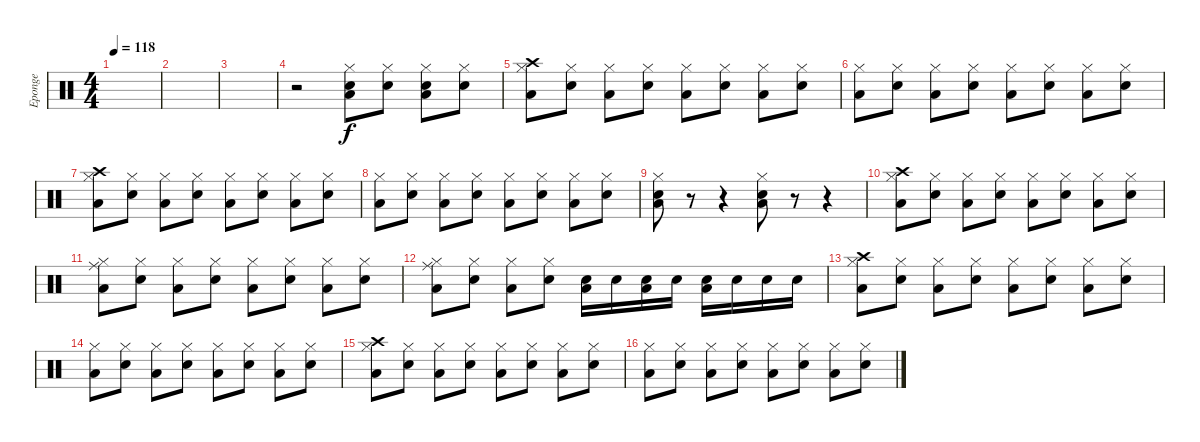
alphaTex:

\track ("Eponge" "Eponge") {instrument percussion}
\staff {score}
\articulation defaults
\ts (4 4)
\tempo 118
\clef neutral
\ks c
|
|
|
r.2 ("Low Floor Tom (hit)" "Snare (hit) 2" "Hi-Hat (closed)").8 ("Snare (hit) 2" "Hi-Hat (closed)").8 ("Low Floor Tom (hit)" "Snare (hit) 2" "Hi-Hat (closed)").8 ("Snare (hit) 2" "Hi-Hat (closed)").8 |
("Low Floor Tom (hit)" "Hi-Hat (closed)" "Crash high (hit)").8 ("Snare (hit) 2" "Hi-Hat (closed)").8 ("Low Floor Tom (hit)" "Hi-Hat (closed)").8 ("Snare (hit) 2" "Hi-Hat (closed)").8 ("Low Floor Tom (hit)" "Hi-Hat (closed)").8 ("Snare (hit) 2" "Hi-Hat (closed)").8 ("Low Floor Tom (hit)" "Hi-Hat (closed)").8 ("Snare (hit) 2" "Hi-Hat (closed)").8 |
("Low Floor Tom (hit)" "Hi-Hat (closed)").8 ("Snare (hit) 2" "Hi-Hat (closed)").8 ("Low Floor Tom (hit)" "Hi-Hat (closed)").8 ("Snare (hit) 2" "Hi-Hat (closed)").8 ("Low Floor Tom (hit)" "Hi-Hat (closed)").8 ("Snare (hit) 2" "Hi-Hat (closed)").8 ("Low Floor Tom (hit)" "Hi-Hat (closed)").8 ("Snare (hit) 2" "Hi-Hat (closed)").8 |
("Low Floor Tom (hit)" "Hi-Hat (closed)" "Crash high (hit)").8 ("Snare (hit) 2" "Hi-Hat (closed)").8 ("Low Floor Tom (hit)" "Hi-Hat (closed)").8 ("Snare (hit) 2" "Hi-Hat (closed)").8 ("Low Floor Tom (hit)" "Hi-Hat (closed)").8 ("Snare (hit) 2" "Hi-Hat (closed)").8 ("Low Floor Tom (hit)" "Hi-Hat (closed)").8 ("Snare (hit) 2" "Hi-Hat (closed)").8 |
("Low Floor Tom (hit)" "Hi-Hat (closed)").8 ("Snare (hit) 2" "Hi-Hat (closed)").8 ("Low Floor Tom (hit)" "Hi-Hat (closed)").8 ("Snare (hit) 2" "Hi-Hat (closed)").8 ("Low Floor Tom (hit)" "Hi-Hat (closed)").8 ("Snare (hit) 2" "Hi-Hat (closed)").8 ("Low Floor Tom (hit)" "Hi-Hat (closed)").8 ("Snare (hit) 2" "Hi-Hat (closed)").8 |
("Low Floor Tom (hit)" "Snare (hit) 2" "Hi-Hat (closed)").8 r.8 r.4 ("Low Floor Tom (hit)" "Snare (hit) 2" "Hi-Hat (closed)").8 r.8 r.4 |
("Low Floor Tom (hit)" "Hi-Hat (closed)" "Crash high (hit)").8 ("Snare (hit) 2" "Hi-Hat (closed)").8 ("Low Floor Tom (hit)" "Hi-Hat (closed)").8 ("Snare (hit) 2" "Hi-Hat (closed)").8 ("Low Floor Tom (hit)" "Hi-Hat (closed)").8 ("Snare (hit) 2" "Hi-Hat (closed)").8 ("Low Floor Tom (hit)" "Hi-Hat (closed)").8 ("Snare (hit) 2" "Hi-Hat (closed)").8 |
("Low Floor Tom (hit)" "Hi-Hat (closed)" "Ride (middle)").8 ("Snare (hit) 2" "Hi-Hat (closed)").8 ("Low Floor Tom (hit)" "Hi-Hat (closed)").8 ("Snare (hit) 2" "Hi-Hat (closed)").8 ("Low Floor Tom (hit)" "Hi-Hat (closed)").8 ("Snare (hit) 2" "Hi-Hat (closed)").8 ("Low Floor Tom (hit)" "Hi-Hat (closed)").8 ("Snare (hit) 2" "Hi-Hat (closed)").8 |
("Low Floor Tom (hit)" "Hi-Hat (closed)" "Ride (middle)").8 ("Snare (hit) 2" "Hi-Hat (closed)").8 ("Low Floor Tom (hit)" "Hi-Hat (closed)").8 ("Snare (hit) 2" "Hi-Hat (closed)").8 ("Low Floor Tom (hit)" "Snare (hit) 2").16 "Snare (hit) 2".16 ("Low Floor Tom (hit)" "Snare (hit) 2").16 "Snare (hit) 2".16 ("Low Floor Tom (hit)" "Snare (hit) 2").16 "Snare (hit) 2".16 "Snare (hit) 2".16 "Snare (hit) 2".16 |
("Low Floor Tom (hit)" "Hi-Hat (closed)" "Crash high (hit)").8 ("Snare (hit) 2" "Hi-Hat (closed)").8 ("Low Floor Tom (hit)" "Hi-Hat (closed)").8 ("Snare (hit) 2" "Hi-Hat (closed)").8 ("Low Floor Tom (hit)" "Hi-Hat (closed)").8 ("Snare (hit) 2" "Hi-Hat (closed)").8 ("Low Floor Tom (hit)" "Hi-Hat (closed)").8 ("Snare (hit) 2" "Hi-Hat (closed)").8 |
("Low Floor Tom (hit)" "Hi-Hat (closed)").8 ("Snare (hit) 2" "Hi-Hat (closed)").8 ("Low Floor Tom (hit)" "Hi-Hat (closed)").8 ("Snare (hit) 2" "Hi-Hat (closed)").8 ("Low Floor Tom (hit)" "Hi-Hat (closed)").8 ("Snare (hit) 2" "Hi-Hat (closed)").8 ("Low Floor Tom (hit)" "Hi-Hat (closed)").8 ("Snare (hit) 2" "Hi-Hat (closed)").8 |
("Low Floor Tom (hit)" "Hi-Hat (closed)" "Crash high (hit)").8 ("Snare (hit) 2" "Hi-Hat (closed)").8 ("Low Floor Tom (hit)" "Hi-Hat (closed)").8 ("Snare (hit) 2" "Hi-Hat (closed)").8 ("Low Floor Tom (hit)" "Hi-Hat (closed)").8 ("Snare (hit) 2" "Hi-Hat (closed)").8 ("Low Floor Tom (hit)" "Hi-Hat (closed)").8 ("Snare (hit) 2" "Hi-Hat (closed)").8 |
("Low Floor Tom (hit)" "Hi-Hat (closed)").8 ("Snare (hit) 2" "Hi-Hat (closed)").8 ("Low Floor Tom (hit)" "Hi-Hat (closed)").8 ("Snare (hit) 2" "Hi-Hat (closed)").8 ("Low Floor Tom (hit)" "Hi-Hat (closed)").8 ("Snare (hit) 2" "Hi-Hat (closed)").8 ("Low Floor Tom (hit)" "Hi-Hat (closed)").8 ("Snare (hit) 2" "Hi-Hat (closed)").8
